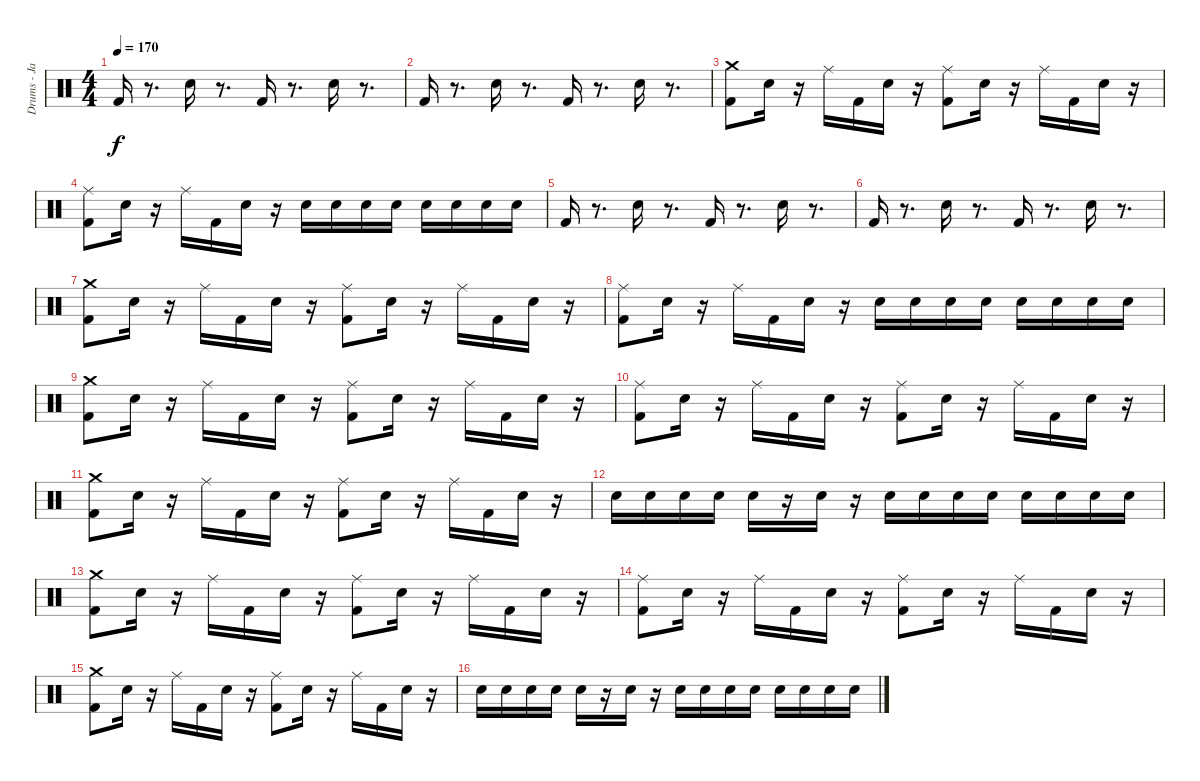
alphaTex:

\track ("Drums - Jasper Blazer" "Drums - Ja") {instrument percussion}
\staff {score}
\articulation defaults
\ts (4 4)
\tempo 170
\clef neutral
\ks c "Kick (hit) 2".16{dy f}
r.8{d} "Electric Snare (hit)".16 r.8{d} "Kick (hit) 2".16 r.8{d} "Electric Snare (hit)".16 r.8{d} |
"Kick (hit) 2".16 r.8{d} "Electric Snare (hit)".16 r.8{d} "Kick (hit) 2".16 r.8{d} "Electric Snare (hit)".16 r.8{d} |
("Kick (hit) 2" "Crash medium (hit)").8 "Electric Snare (hit)".16 r.16 "Ride (middle)".16 "Kick (hit) 2".16 "Electric Snare (hit)".16 r.16 ("Kick (hit) 2" "Ride (middle)").8 "Electric Snare (hit)".16 r.16 "Ride (middle)".16 "Kick (hit) 2".16 "Electric Snare (hit)".16 r.16 |
("Kick (hit) 2" "Ride (middle)").8 "Electric Snare (hit)".16 r.16 "Ride (middle)".16 "Kick (hit) 2".16 "Electric Snare (hit)".16 r.16 "Electric Snare (hit)".16 "Electric Snare (hit)".16 "Electric Snare (hit)".16 "Electric Snare (hit)".16 "Electric Snare (hit)".16 "Electric Snare (hit)".16 "Electric Snare (hit)".16 "Electric Snare (hit)".16 |
"Kick (hit) 2".16 r.8{d} "Electric Snare (hit)".16 r.8{d} "Kick (hit) 2".16 r.8{d} "Electric Snare (hit)".16 r.8{d} |
"Kick (hit) 2".16 r.8{d} "Electric Snare (hit)".16 r.8{d} "Kick (hit) 2".16 r.8{d} "Electric Snare (hit)".16 r.8{d} |
("Kick (hit) 2" "Crash medium (hit)").8 "Electric Snare (hit)".16 r.16 "Ride (middle)".16 "Kick (hit) 2".16 "Electric Snare (hit)".16 r.16 ("Kick (hit) 2" "Ride (middle)").8 "Electric Snare (hit)".16 r.16 "Ride (middle)".16 "Kick (hit) 2".16 "Electric Snare (hit)".16 r.16 |
("Kick (hit) 2" "Ride (middle)").8 "Electric Snare (hit)".16 r.16 "Ride (middle)".16 "Kick (hit) 2".16 "Electric Snare (hit)".16 r.16 "Electric Snare (hit)".16 "Electric Snare (hit)".16 "Electric Snare (hit)".16 "Electric Snare (hit)".16 "Electric Snare (hit)".16 "Electric Snare (hit)".16 "Electric Snare (hit)".16 "Electric Snare (hit)".16 |
("Kick (hit) 2" "Crash medium (hit)").8 "Electric Snare (hit)".16 r.16 "Ride (middle)".16 "Kick (hit) 2".16 "Electric Snare (hit)".16 r.16 ("Kick (hit) 2" "Ride (middle)").8 "Electric Snare (hit)".16 r.16 "Ride (middle)".16 "Kick (hit) 2".16 "Electric Snare (hit)".16 r.16 |
("Kick (hit) 2" "Ride (middle)").8 "Electric Snare (hit)".16 r.16 "Ride (middle)".16 "Kick (hit) 2".16 "Electric Snare (hit)".16 r.16 ("Kick (hit) 2" "Ride (middle)").8 "Electric Snare (hit)".16 r.16 "Ride (middle)".16 "Kick (hit) 2".16 "Electric Snare (hit)".16 r.16 |
("Kick (hit) 2" "Crash medium (hit)").8 "Electric Snare (hit)".16 r.16 "Ride (middle)".16 "Kick (hit) 2".16 "Electric Snare (hit)".16 r.16 ("Kick (hit) 2" "Ride (middle)").8 "Electric Snare (hit)".16 r.16 "Ride (middle)".16 "Kick (hit) 2".16 "Electric Snare (hit)".16 r.16 |
"Electric Snare (hit)".16 "Electric Snare (hit)".16 "Electric Snare (hit)".16 "Electric Snare (hit)".16 "Electric Snare (hit)".16 r.16 "Electric Snare (hit)".16 r.16 "Electric Snare (hit)".16 "Electric Snare (hit)".16 "Electric Snare (hit)".16 "Electric Snare (hit)".16 "Electric Snare (hit)".16 "Electric Snare (hit)".16 "Electric Snare (hit)".16 "Electric Snare (hit)".16 |
("Kick (hit) 2" "Crash medium (hit)").8 "Electric Snare (hit)".16 r.16 "Ride (middle)".16 "Kick (hit) 2".16 "Electric Snare (hit)".16 r.16 ("Kick (hit) 2" "Ride (middle)").8 "Electric Snare (hit)".16 r.16 "Ride (middle)".16 "Kick (hit) 2".16 "Electric Snare (hit)".16 r.16 |
("Kick (hit) 2" "Ride (middle)").8 "Electric Snare (hit)".16 r.16 "Ride (middle)".16 "Kick (hit) 2".16 "Electric Snare (hit)".16 r.16 ("Kick (hit) 2" "Ride (middle)").8 "Electric Snare (hit)".16 r.16 "Ride (middle)".16 "Kick (hit) 2".16 "Electric Snare (hit)".16 r.16 |
("Kick (hit) 2" "Crash medium (hit)").8 "Electric Snare (hit)".16 r.16 "Ride (middle)".16 "Kick (hit) 2".16 "Electric Snare (hit)".16 r.16 ("Kick (hit) 2" "Ride (middle)").8 "Electric Snare (hit)".16 r.16 "Ride (middle)".16 "Kick (hit) 2".16 "Electric Snare (hit)".16 r.16 |
"Electric Snare (hit)".16 "Electric Snare (hit)".16 "Electric Snare (hit)".16 "Electric Snare (hit)".16 "Electric Snare (hit)".16 r.16 "Electric Snare (hit)".16 r.16 "Electric Snare (hit)".16 "Electric Snare (hit)".16 "Electric Snare (hit)".16 "Electric Snare (hit)".16 "Electric Snare (hit)".16 "Electric Snare (hit)".16 "Electric Snare (hit)".16 "Electric Snare (hit)".16
